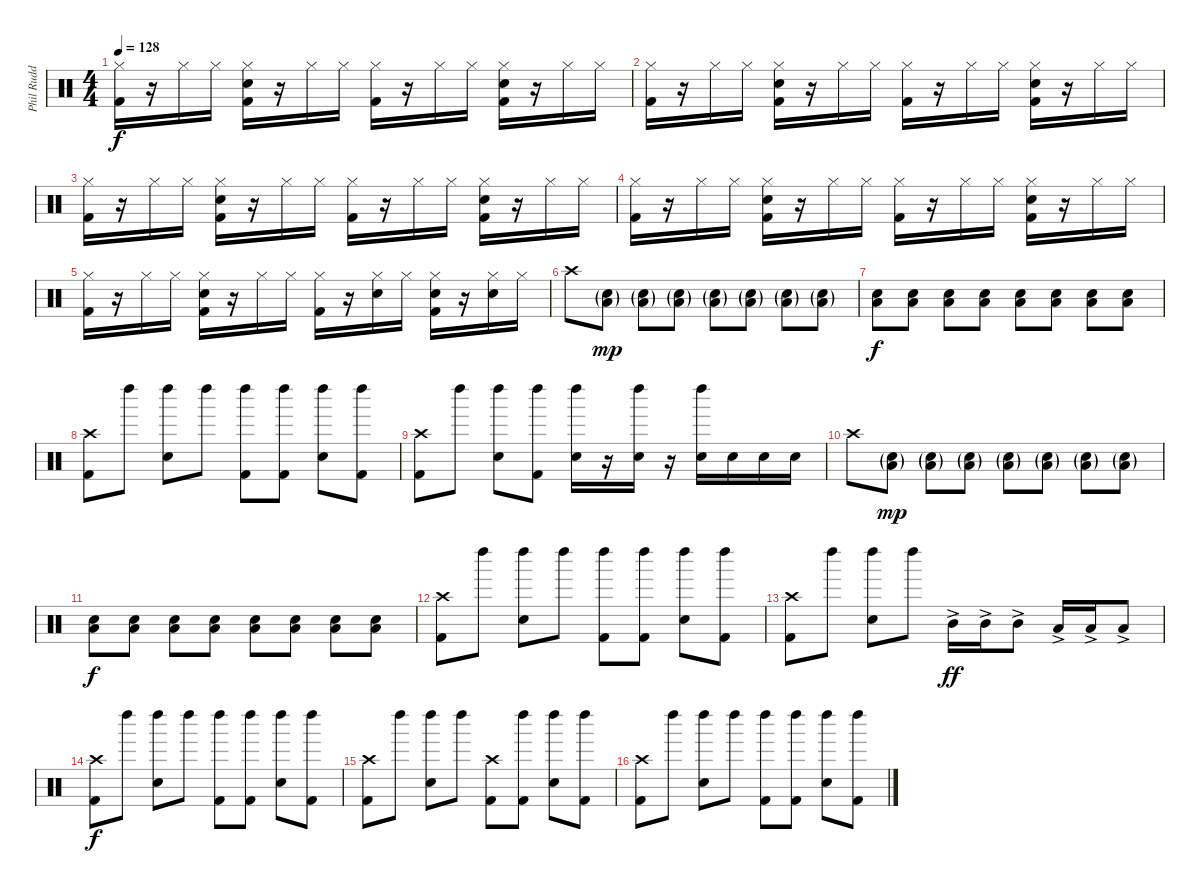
\track ("Phil Rudd" "Phil Rudd") {instrument percussion}
\staff {score}
\articulation defaults
\ts (4 4)
\tempo 128
\clef neutral
\ks c
("Hi-Hat (closed)" "Kick (hit) 2").16{dy f} r.16 "Hi-Hat (closed)".16 "Hi-Hat (closed)".16 ("Hi-Hat (closed)" "Snare (hit) 2" "Kick (hit) 2").16 r.16 "Hi-Hat (closed)".16 "Hi-Hat (closed)".16 ("Hi-Hat (closed)" "Kick (hit) 2").16 r.16 "Hi-Hat (closed)".16 "Hi-Hat (closed)".16 ("Hi-Hat (closed)" "Snare (hit) 2" "Kick (hit) 2").16 r.16 "Hi-Hat (closed)".16 "Hi-Hat (closed)".16 |
("Hi-Hat (closed)" "Kick (hit) 2").16 r.16 "Hi-Hat (closed)".16 "Hi-Hat (closed)".16 ("Hi-Hat (closed)" "Snare (hit) 2" "Kick (hit) 2").16 r.16 "Hi-Hat (closed)".16 "Hi-Hat (closed)".16 ("Hi-Hat (closed)" "Kick (hit) 2").16 r.16 "Hi-Hat (closed)".16 "Hi-Hat (closed)".16 ("Hi-Hat (closed)" "Snare (hit) 2" "Kick (hit) 2").16 r.16 "Hi-Hat (closed)".16 "Hi-Hat (closed)".16 |
("Hi-Hat (closed)" "Kick (hit) 2").16 r.16 "Hi-Hat (closed)".16 "Hi-Hat (closed)".16 ("Hi-Hat (closed)" "Snare (hit) 2" "Kick (hit) 2").16 r.16 "Hi-Hat (closed)".16 "Hi-Hat (closed)".16 ("Hi-Hat (closed)" "Kick (hit) 2").16 r.16 "Hi-Hat (closed)".16 "Hi-Hat (closed)".16 ("Hi-Hat (closed)" "Snare (hit) 2" "Kick (hit) 2").16 r.16 "Hi-Hat (closed)".16 "Hi-Hat (closed)".16 |
("Hi-Hat (closed)" "Kick (hit) 2").16 r.16 "Hi-Hat (closed)".16 "Hi-Hat (closed)".16 ("Hi-Hat (closed)" "Snare (hit) 2" "Kick (hit) 2").16 r.16 "Hi-Hat (closed)".16 "Hi-Hat (closed)".16 ("Hi-Hat (closed)" "Kick (hit) 2").16 r.16 "Hi-Hat (closed)".16 "Hi-Hat (closed)".16 ("Hi-Hat (closed)" "Snare (hit) 2" "Kick (hit) 2").16 r.16 "Hi-Hat (closed)".16 "Hi-Hat (closed)".16 |
("Hi-Hat (closed)" "Kick (hit) 2").16 r.16 "Hi-Hat (closed)".16 "Hi-Hat (closed)".16 ("Hi-Hat (closed)" "Snare (hit) 2" "Kick (hit) 2").16 r.16 "Hi-Hat (closed)".16 "Hi-Hat (closed)".16 ("Hi-Hat (closed)" "Kick (hit) 2").16 r.16 ("Hi-Hat (closed)" "Snare (hit) 2").16 "Hi-Hat (closed)".16 ("Hi-Hat (closed)" "Snare (hit) 2" "Kick (hit) 2").16 r.16 ("Hi-Hat (closed)" "Snare (hit) 2").16 "Hi-Hat (closed)".16 |
"Crash high (hit)".8 ("Snare (hit) 2"{g} "Low Tom (hit)"{g}).8{dy mp} ("Snare (hit) 2"{g} "Low Tom (hit)"{g}).8 ("Snare (hit) 2"{g} "Low Tom (hit)"{g}).8 ("Snare (hit) 2"{g} "Low Tom (hit)"{g}).8 ("Snare (hit) 2"{g} "Low Tom (hit)"{g}).8 ("Snare (hit) 2"{g} "Low Tom (hit)"{g}).8 ("Snare (hit) 2"{g} "Low Tom (hit)"{g}).8 |
("Snare (hit) 2" "Low Tom (hit)").8{dy f} ("Snare (hit) 2" "Low Tom (hit)").8 ("Snare (hit) 2" "Low Tom (hit)").8 ("Snare (hit) 2" "Low Tom (hit)").8 ("Snare (hit) 2" "Low Tom (hit)").8 ("Snare (hit) 2" "Low Tom (hit)").8 ("Snare (hit) 2" "Low Tom (hit)").8 ("Snare (hit) 2" "Low Tom (hit)").8 |
("Crash high (hit)" "Kick (hit) 2").8 "Left Maraca (hit)".8 ("Left Maraca (hit)" "Snare (hit) 2").8 "Left Maraca (hit)".8 ("Left Maraca (hit)" "Kick (hit) 2").8 ("Left Maraca (hit)" "Kick (hit) 2").8 ("Left Maraca (hit)" "Snare (hit) 2").8 ("Left Maraca (hit)" "Kick (hit) 2").8 |
("Crash high (hit)" "Kick (hit) 2").8 "Left Maraca (hit)".8 ("Left Maraca (hit)" "Snare (hit) 2").8 ("Left Maraca (hit)" "Kick (hit) 2").8 ("Left Maraca (hit)" "Snare (hit) 2").16 r.16 ("Left Maraca (hit)" "Snare (hit) 2").16 r.16 ("Left Maraca (hit)" "Snare (hit) 2").16 "Snare (hit) 2".16 "Snare (hit) 2".16 "Snare (hit) 2".16 |
"Crash high (hit)".8 ("Snare (hit) 2"{g} "Low Tom (hit)"{g}).8{dy mp} ("Snare (hit) 2"{g} "Low Tom (hit)"{g}).8 ("Snare (hit) 2"{g} "Low Tom (hit)"{g}).8 ("Snare (hit) 2"{g} "Low Tom (hit)"{g}).8 ("Snare (hit) 2"{g} "Low Tom (hit)"{g}).8 ("Snare (hit) 2"{g} "Low Tom (hit)"{g}).8 ("Snare (hit) 2"{g} "Low Tom (hit)"{g}).8 |
("Snare (hit) 2" "Low Tom (hit)").8{dy f} ("Snare (hit) 2" "Low Tom (hit)").8 ("Snare (hit) 2" "Low Tom (hit)").8 ("Snare (hit) 2" "Low Tom (hit)").8 ("Snare (hit) 2" "Low Tom (hit)").8 ("Snare (hit) 2" "Low Tom (hit)").8 ("Snare (hit) 2" "Low Tom (hit)").8 ("Snare (hit) 2" "Low Tom (hit)").8 |
("Crash high (hit)" "Kick (hit) 2").8 "Left Maraca (hit)".8 ("Left Maraca (hit)" "Snare (hit) 2").8 "Left Maraca (hit)".8 ("Left Maraca (hit)" "Kick (hit) 2").8 ("Left Maraca (hit)" "Kick (hit) 2").8 ("Left Maraca (hit)" "Snare (hit) 2").8 ("Left Maraca (hit)" "Kick (hit) 2").8 |
("Crash high (hit)" "Kick (hit) 2").8 "Left Maraca (hit)".8 ("Left Maraca (hit)" "Snare (hit) 2").8 "Left Maraca (hit)".8 "Mid Tom (hit)"{ac}.16{dy ff} "Mid Tom (hit)"{ac}.16 "Mid Tom (hit)"{ac}.8 "Low Tom (hit)"{ac}.16 "Low Tom (hit)"{ac}.16 "Low Tom (hit)"{ac}.8 |
("Crash high (hit)" "Kick (hit) 2").8{dy f} "Left Maraca (hit)".8 ("Left Maraca (hit)" "Snare (hit) 2").8 "Left Maraca (hit)".8 ("Left Maraca (hit)" "Kick (hit) 2").8 ("Left Maraca (hit)" "Kick (hit) 2").8 ("Left Maraca (hit)" "Snare (hit) 2").8 ("Left Maraca (hit)" "Kick (hit) 2").8 |
("Crash high (hit)" "Kick (hit) 2").8 "Left Maraca (hit)".8 ("Left Maraca (hit)" "Snare (hit) 2").8 "Left Maraca (hit)".8 ("Crash high (hit)" "Kick (hit) 2").8 ("Left Maraca (hit)" "Kick (hit) 2").8 ("Left Maraca (hit)" "Snare (hit) 2").8 ("Left Maraca (hit)" "Kick (hit) 2").8 |
("Crash high (hit)" "Kick (hit) 2").8 "Left Maraca (hit)".8 ("Left Maraca (hit)" "Snare (hit) 2").8 "Left Maraca (hit)".8 ("Left Maraca (hit)" "Kick (hit) 2").8 ("Left Maraca (hit)" "Kick (hit) 2").8 ("Left Maraca (hit)" "Snare (hit) 2").8 ("Left Maraca (hit)" "Kick (hit) 2").8
